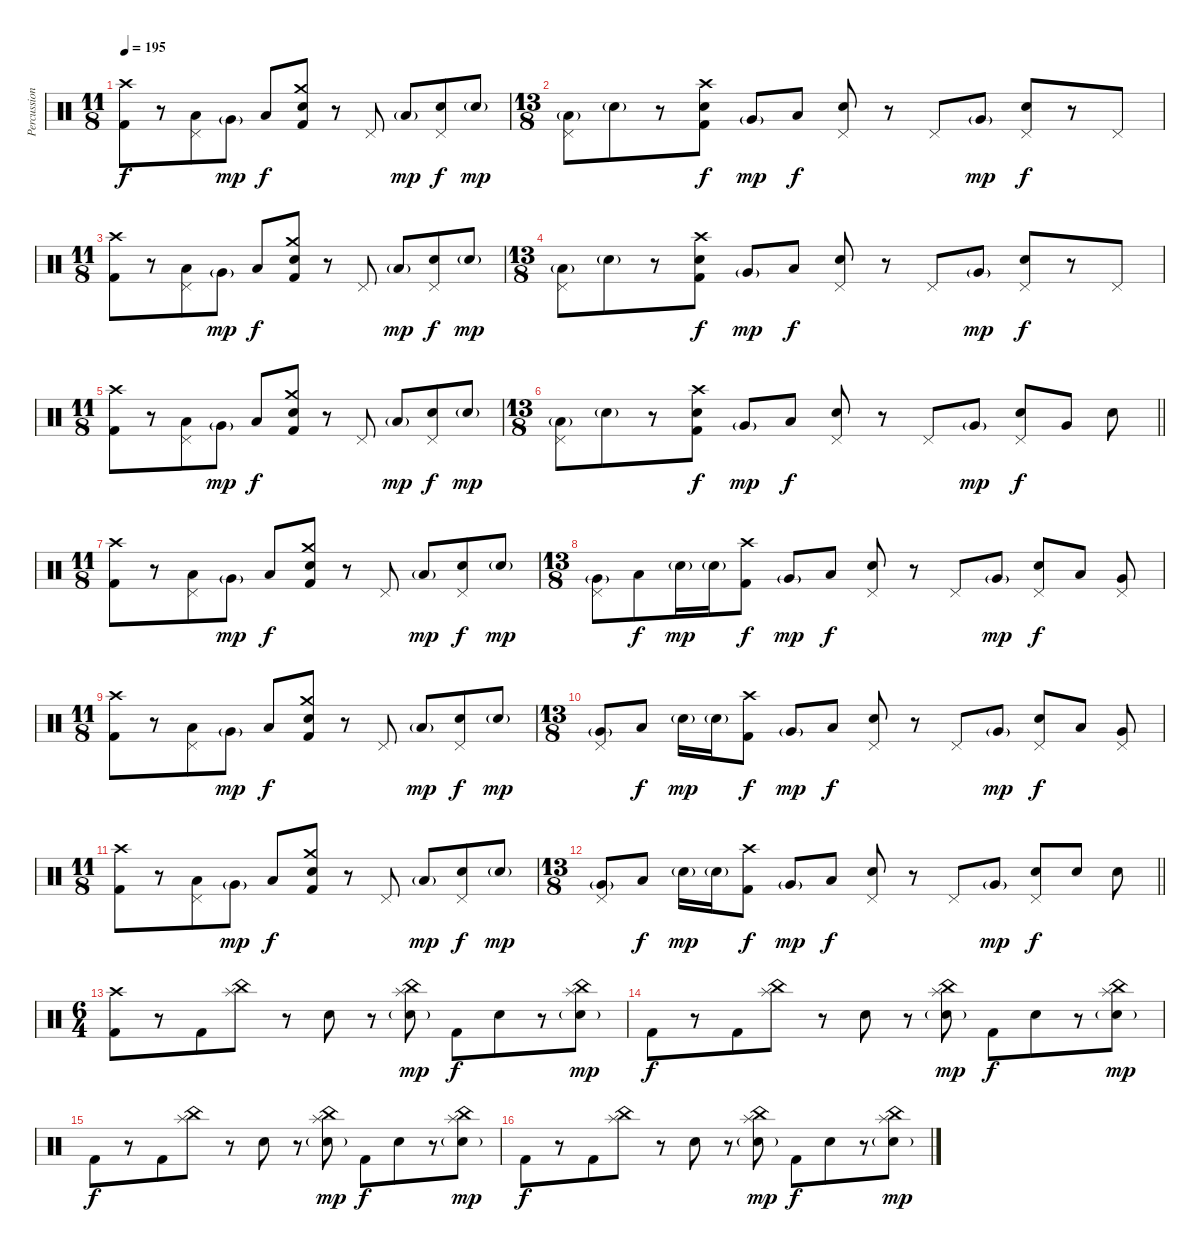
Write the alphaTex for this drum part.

\track ("Percussion" "Percussion") {instrument percussion bank 237}
\staff {score}
\articulation defaults
\ts (11 8)
\tempo 195
\clef neutral
\ks c
("Crash high (hit)" "Kick (hit) 2").8{dy f beam merge} r.8{beam merge} ("Pedal Hi-Hat (hit)" "Low Tom (hit)").8 "Very Low Tom (hit)"{g}.8{dy mp} "Low Floor Tom (hit)".8{dy f} ("Crash medium (hit)" "Electric Snare (hit)" "Kick (hit) 2").8 r.8 "Pedal Hi-Hat (hit)".8 "Low Floor Tom (hit)"{g}.8{dy mp} ("Pedal Hi-Hat (hit)" "Electric Snare (hit)").8{dy f beam merge} "Electric Snare (hit)"{g}.8{dy mp} |
\ts (13 8)
("Pedal Hi-Hat (hit)" "Low Floor Tom (hit)"{g}).8 "Electric Snare (hit)"{g}.8{beam merge} r.8{beam merge} ("Crash high (hit)" "Electric Snare (hit)" "Kick (hit) 2").8{dy f} "Very Low Tom (hit)"{g}.8{dy mp} "Low Floor Tom (hit)".8{dy f} ("Pedal Hi-Hat (hit)" "Electric Snare (hit)").8 r.8{beam merge} "Pedal Hi-Hat (hit)".8 "Very Low Tom (hit)"{g}.8{dy mp} ("Pedal Hi-Hat (hit)" "Electric Snare (hit)").8{dy f beam merge} r.8{beam merge} "Pedal Hi-Hat (hit)".8 |
\ts (11 8)
("Crash high (hit)" "Kick (hit) 2").8{beam merge} r.8{beam merge} ("Pedal Hi-Hat (hit)" "Low Tom (hit)").8 "Very Low Tom (hit)"{g}.8{dy mp} "Low Floor Tom (hit)".8{dy f} ("Crash medium (hit)" "Electric Snare (hit)" "Kick (hit) 2").8 r.8 "Pedal Hi-Hat (hit)".8 "Low Floor Tom (hit)"{g}.8{dy mp} ("Pedal Hi-Hat (hit)" "Electric Snare (hit)").8{dy f beam merge} "Electric Snare (hit)"{g}.8{dy mp} |
\ts (13 8)
("Pedal Hi-Hat (hit)" "Low Floor Tom (hit)"{g}).8 "Electric Snare (hit)"{g}.8{beam merge} r.8{beam merge} ("Crash high (hit)" "Electric Snare (hit)" "Kick (hit) 2").8{dy f} "Very Low Tom (hit)"{g}.8{dy mp} "Low Floor Tom (hit)".8{dy f} ("Pedal Hi-Hat (hit)" "Electric Snare (hit)").8 r.8{beam merge} "Pedal Hi-Hat (hit)".8 "Very Low Tom (hit)"{g}.8{dy mp} ("Pedal Hi-Hat (hit)" "Electric Snare (hit)").8{dy f beam merge} r.8 "Pedal Hi-Hat (hit)".8 |
\ts (11 8)
("Crash high (hit)" "Kick (hit) 2").8{beam merge} r.8{beam merge} ("Pedal Hi-Hat (hit)" "Low Tom (hit)").8 "Very Low Tom (hit)"{g}.8{dy mp} "Low Floor Tom (hit)".8{dy f} ("Crash medium (hit)" "Electric Snare (hit)" "Kick (hit) 2").8 r.8 "Pedal Hi-Hat (hit)".8 "Low Floor Tom (hit)"{g}.8{dy mp} ("Pedal Hi-Hat (hit)" "Electric Snare (hit)").8{dy f beam merge} "Electric Snare (hit)"{g}.8{dy mp} |
\ts (13 8)
\barLineRight lightlight
("Pedal Hi-Hat (hit)" "Low Floor Tom (hit)"{g}).8 "Electric Snare (hit)"{g}.8{beam merge} r.8{beam merge} ("Crash high (hit)" "Electric Snare (hit)" "Kick (hit) 2").8{dy f} "Very Low Tom (hit)"{g}.8{dy mp} "Low Floor Tom (hit)".8{dy f} ("Pedal Hi-Hat (hit)" "Electric Snare (hit)").8 r.8{beam merge} "Pedal Hi-Hat (hit)".8 "Very Low Tom (hit)"{g}.8{dy mp} ("Pedal Hi-Hat (hit)" "Electric Snare (hit)").8{dy f} "Very Low Tom (hit)".8 "Electric Snare (hit)".8 |
\ts (11 8)
("Crash high (hit)" "Kick (hit) 2").8{beam merge} r.8{beam merge} ("Pedal Hi-Hat (hit)" "Low Tom (hit)").8 "Very Low Tom (hit)"{g}.8{dy mp} "Low Floor Tom (hit)".8{dy f} ("Crash medium (hit)" "Electric Snare (hit)" "Kick (hit) 2").8 r.8 "Pedal Hi-Hat (hit)".8 "Low Floor Tom (hit)"{g}.8{dy mp} ("Pedal Hi-Hat (hit)" "Electric Snare (hit)").8{dy f beam merge} "Electric Snare (hit)"{g}.8{dy mp} |
\ts (13 8)
("Pedal Hi-Hat (hit)" "Very Low Tom (hit)"{g}).8 "Low Floor Tom (hit)".8{dy f beam merge} "Electric Snare (hit)"{g}.16{dy mp beam merge} "Electric Snare (hit)"{g}.16{beam merge} ("Crash high (hit)" "Kick (hit) 2").8{dy f} "Very Low Tom (hit)"{g}.8{dy mp} "Low Floor Tom (hit)".8{dy f} ("Pedal Hi-Hat (hit)" "Electric Snare (hit)").8 r.8{beam merge} "Pedal Hi-Hat (hit)".8 "Very Low Tom (hit)"{g}.8{dy mp} ("Pedal Hi-Hat (hit)" "Electric Snare (hit)").8{dy f beam merge} "Low Tom (hit)".8 ("Pedal Hi-Hat (hit)" "Very Low Tom (hit)").8 |
\ts (11 8)
("Crash high (hit)" "Kick (hit) 2").8{beam merge} r.8{beam merge} ("Pedal Hi-Hat (hit)" "Low Tom (hit)").8 "Very Low Tom (hit)"{g}.8{dy mp} "Low Floor Tom (hit)".8{dy f} ("Crash medium (hit)" "Electric Snare (hit)" "Kick (hit) 2").8 r.8 "Pedal Hi-Hat (hit)".8 "Low Floor Tom (hit)"{g}.8{dy mp} ("Pedal Hi-Hat (hit)" "Electric Snare (hit)").8{dy f beam merge} "Electric Snare (hit)"{g}.8{dy mp} |
\ts (13 8)
("Pedal Hi-Hat (hit)" "Very Low Tom (hit)"{g}).8 "Low Floor Tom (hit)".8{dy f} "Electric Snare (hit)"{g}.16{dy mp beam merge} "Electric Snare (hit)"{g}.16{beam merge} ("Crash high (hit)" "Kick (hit) 2").8{dy f} "Very Low Tom (hit)"{g}.8{dy mp} "Low Floor Tom (hit)".8{dy f} ("Pedal Hi-Hat (hit)" "Electric Snare (hit)").8 r.8{beam merge} "Pedal Hi-Hat (hit)".8 "Very Low Tom (hit)"{g}.8{dy mp} ("Pedal Hi-Hat (hit)" "Electric Snare (hit)").8{dy f beam merge} "Low Tom (hit)".8 ("Pedal Hi-Hat (hit)" "Very Low Tom (hit)").8 |
\ts (11 8)
("Crash high (hit)" "Kick (hit) 2").8{beam merge} r.8{beam merge} ("Pedal Hi-Hat (hit)" "Low Tom (hit)").8 "Very Low Tom (hit)"{g}.8{dy mp} "Low Floor Tom (hit)".8{dy f} ("Crash medium (hit)" "Electric Snare (hit)" "Kick (hit) 2").8 r.8 "Pedal Hi-Hat (hit)".8 "Low Floor Tom (hit)"{g}.8{dy mp} ("Pedal Hi-Hat (hit)" "Electric Snare (hit)").8{dy f beam merge} "Electric Snare (hit)"{g}.8{dy mp} |
\ts (13 8)
\barLineRight lightlight
("Pedal Hi-Hat (hit)" "Very Low Tom (hit)"{g}).8 "Low Floor Tom (hit)".8{dy f} "Electric Snare (hit)"{g}.16{dy mp beam merge} "Electric Snare (hit)"{g}.16{beam merge} ("Crash high (hit)" "Kick (hit) 2").8{dy f} "Very Low Tom (hit)"{g}.8{dy mp} "Low Floor Tom (hit)".8{dy f} ("Pedal Hi-Hat (hit)" "Electric Snare (hit)").8 r.8{beam merge} "Pedal Hi-Hat (hit)".8 "Very Low Tom (hit)"{g}.8{dy mp} ("Pedal Hi-Hat (hit)" "Electric Snare (hit)").8{dy f beam merge} "Electric Snare (hit)".8 "Electric Snare (hit)".8 |
\ts (6 4)
\section ("" "")
("Crash high (hit)" "Kick (hit) 2").8{beam merge} r.8{beam merge} "Kick (hit) 2".8 ("Splash (hit)" "China (hit)").8 r.8 "Electric Snare (hit)".8 r.8 ("Splash (hit)" "China (hit)" "Electric Snare (hit)"{g}).8{dy mp} "Kick (hit) 2".8{dy f} "Electric Snare (hit)".8{beam merge} r.8{beam merge} ("Splash (hit)" "China (hit)" "Electric Snare (hit)"{g}).8{dy mp} |
"Kick (hit) 2".8{dy f beam merge} r.8{beam merge} "Kick (hit) 2".8 ("Splash (hit)" "China (hit)").8 r.8 "Electric Snare (hit)".8 r.8{beam merge} ("Splash (hit)" "China (hit)" "Electric Snare (hit)"{g}).8{dy mp} "Kick (hit) 2".8{dy f} "Electric Snare (hit)".8{beam merge} r.8{beam merge} ("Splash (hit)" "China (hit)" "Electric Snare (hit)"{g}).8{dy mp} |
"Kick (hit) 2".8{dy f beam merge} r.8{beam merge} "Kick (hit) 2".8 ("Splash (hit)" "China (hit)").8 r.8 "Electric Snare (hit)".8 r.8{beam merge} ("Splash (hit)" "China (hit)" "Electric Snare (hit)"{g}).8{dy mp} "Kick (hit) 2".8{dy f} "Electric Snare (hit)".8{beam merge} r.8{beam merge} ("Splash (hit)" "China (hit)" "Electric Snare (hit)"{g}).8{dy mp} |
"Kick (hit) 2".8{dy f beam merge} r.8{beam merge} "Kick (hit) 2".8 ("Splash (hit)" "China (hit)").8 r.8 "Electric Snare (hit)".8 r.8{beam merge} ("Splash (hit)" "China (hit)" "Electric Snare (hit)"{g}).8{dy mp} "Kick (hit) 2".8{dy f} "Electric Snare (hit)".8{beam merge} r.8{beam merge} ("Splash (hit)" "China (hit)" "Electric Snare (hit)"{g}).8{dy mp}
